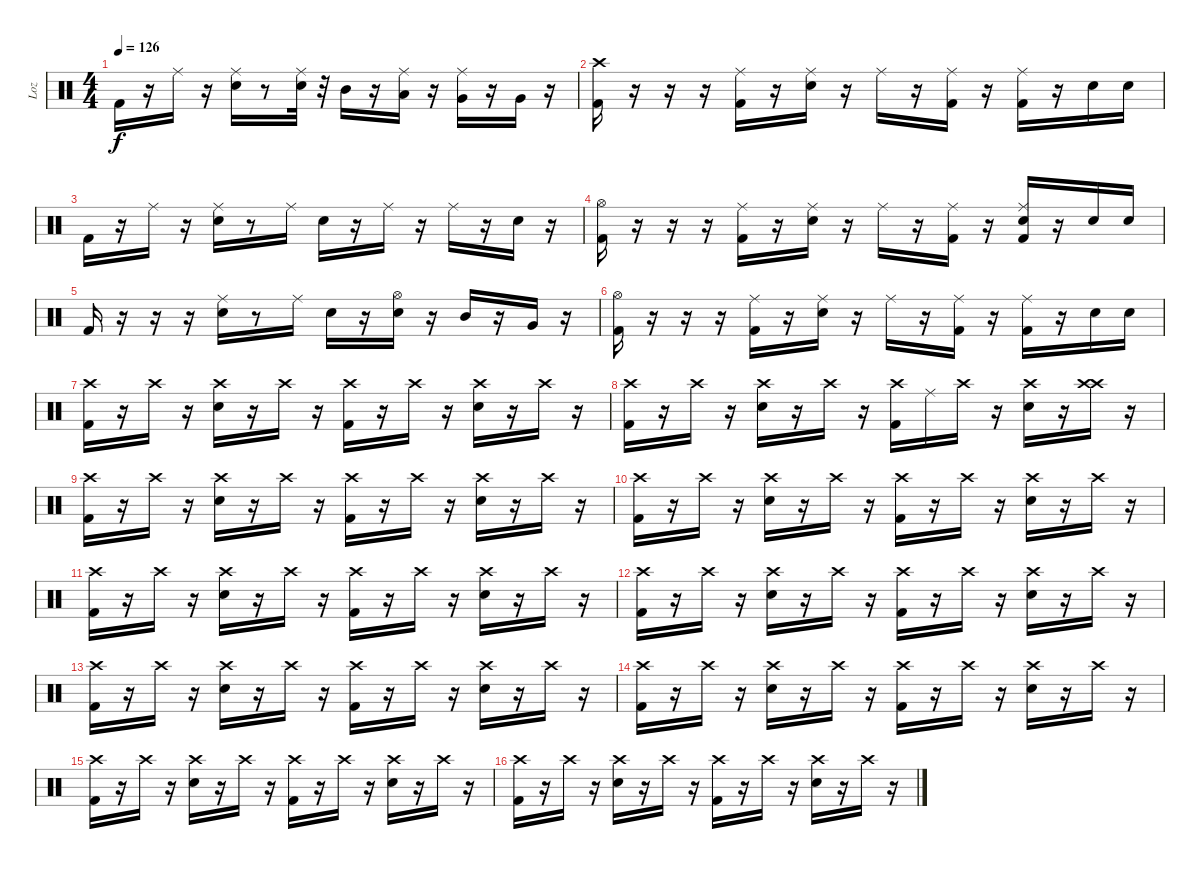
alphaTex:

\track ("Loz" "Loz") {instrument percussion}
\staff {score}
\articulation defaults
\ts (4 4)
\tempo 126
\clef neutral
\ks c "Kick (hit) 2".16{dy f}
r.16 "Ride (middle)".16 r.16 ("Ride (middle)" "Snare (hit) 2").16 r.8 ("Ride (middle)" "Snare (hit) 2").32 r.32 "Mid Tom (hit)".16 r.16 ("Ride (middle)" "Low Tom (hit)").16 r.16 ("Ride (middle)" "Very Low Tom (hit)").16 r.16 "Very Low Tom (hit)".16 r.16 |
("Crash high (hit)" "Kick (hit) 2").16 r.16 r.16 r.16 ("Ride (middle)" "Kick (hit) 2").16 r.16 ("Ride (middle)" "Snare (hit) 2").16 r.16 "Ride (middle)".16 r.16 ("Ride (middle)" "Kick (hit) 2").16 r.16 ("Ride (middle)" "Kick (hit) 2").16 r.16 "Snare (hit) 2".16 "Snare (hit) 2".16 |
"Kick (hit) 2".16 r.16 "Ride (middle)".16 r.16 ("Ride (middle)" "Snare (hit) 2").16 r.8 "Ride (middle)".16 "Snare (hit) 2".16 r.16 "Ride (middle)".16 r.16 "Ride (middle)".16 r.16 "Snare (hit) 2".16 r.16 |
("Hi-Hat (open)" "Kick (hit) 2").16 r.16 r.16 r.16 ("Ride (middle)" "Kick (hit) 2").16 r.16 ("Ride (middle)" "Snare (hit) 2").16 r.16 "Ride (middle)".16 r.16 ("Ride (middle)" "Kick (hit) 2").16 r.16 ("Ride (middle)" "Snare (hit) 2" "Kick (hit) 2").16 r.16 "Snare (hit) 2".16 "Snare (hit) 2".16 |
"Kick (hit) 2".16 r.16 r.16 r.16 ("Ride (middle)" "Snare (hit) 2").16 r.8 "Ride (middle)".16 "Snare (hit) 2".16 r.16 ("Hi-Hat (open)" "Snare (hit) 2").16 r.16 "Mid Tom (hit)".16 r.16 "Very Low Tom (hit)".16 r.16 |
("Hi-Hat (open)" "Kick (hit) 2").16 r.16 r.16 r.16 ("Ride (middle)" "Kick (hit) 2").16 r.16 ("Ride (middle)" "Snare (hit) 2").16 r.16 "Ride (middle)".16 r.16 ("Ride (middle)" "Kick (hit) 2").16 r.16 ("Ride (middle)" "Kick (hit) 2").16 r.16 "Snare (hit) 2".16 "Snare (hit) 2".16 |
("Crash high (hit)" "Kick (hit) 2").16 r.16 "Crash high (hit)".16 r.16 ("Crash high (hit)" "Snare (hit) 2").16 r.16 "Crash high (hit)".16 r.16 ("Crash high (hit)" "Kick (hit) 2").16 r.16 "Crash high (hit)".16 r.16 ("Crash high (hit)" "Snare (hit) 2").16 r.16 "Crash high (hit)".16 r.16 |
("Crash high (hit)" "Kick (hit) 2").16 r.16 "Crash high (hit)".16 r.16 ("Crash high (hit)" "Snare (hit) 2").16 r.16 "Crash high (hit)".16 r.16 ("Crash high (hit)" "Kick (hit) 2").16 "Ride (middle)".16 "Crash high (hit)".16 r.16 ("Crash high (hit)" "Snare (hit) 2").16 r.16 ("Crash high (hit)" "Crash high (hit)").16 r.16 |
("Crash high (hit)" "Kick (hit) 2").16 r.16 "Crash high (hit)".16 r.16 ("Crash high (hit)" "Snare (hit) 2").16 r.16 "Crash high (hit)".16 r.16 ("Crash high (hit)" "Kick (hit) 2").16 r.16 "Crash high (hit)".16 r.16 ("Crash high (hit)" "Snare (hit) 2").16 r.16 "Crash high (hit)".16 r.16 |
("Crash high (hit)" "Kick (hit) 2").16 r.16 "Crash high (hit)".16 r.16 ("Crash high (hit)" "Snare (hit) 2").16 r.16 "Crash high (hit)".16 r.16 ("Crash high (hit)" "Kick (hit) 2").16 r.16 "Crash high (hit)".16 r.16 ("Crash high (hit)" "Snare (hit) 2").16 r.16 "Crash high (hit)".16 r.16 |
("Crash high (hit)" "Kick (hit) 2").16 r.16 "Crash high (hit)".16 r.16 ("Crash high (hit)" "Snare (hit) 2").16 r.16 "Crash high (hit)".16 r.16 ("Crash high (hit)" "Kick (hit) 2").16 r.16 "Crash high (hit)".16 r.16 ("Crash high (hit)" "Snare (hit) 2").16 r.16 "Crash high (hit)".16 r.16 |
("Crash high (hit)" "Kick (hit) 2").16 r.16 "Crash high (hit)".16 r.16 ("Crash high (hit)" "Snare (hit) 2").16 r.16 "Crash high (hit)".16 r.16 ("Crash high (hit)" "Kick (hit) 2").16 r.16 "Crash high (hit)".16 r.16 ("Crash high (hit)" "Snare (hit) 2").16 r.16 "Crash high (hit)".16 r.16 |
("Crash high (hit)" "Kick (hit) 2").16 r.16 "Crash high (hit)".16 r.16 ("Crash high (hit)" "Snare (hit) 2").16 r.16 "Crash high (hit)".16 r.16 ("Crash high (hit)" "Kick (hit) 2").16 r.16 "Crash high (hit)".16 r.16 ("Crash high (hit)" "Snare (hit) 2").16 r.16 "Crash high (hit)".16 r.16 |
("Crash high (hit)" "Kick (hit) 2").16 r.16 "Crash high (hit)".16 r.16 ("Crash high (hit)" "Snare (hit) 2").16 r.16 "Crash high (hit)".16 r.16 ("Crash high (hit)" "Kick (hit) 2").16 r.16 "Crash high (hit)".16 r.16 ("Crash high (hit)" "Snare (hit) 2").16 r.16 "Crash high (hit)".16 r.16 |
("Crash high (hit)" "Kick (hit) 2").16 r.16 "Crash high (hit)".16 r.16 ("Crash high (hit)" "Snare (hit) 2").16 r.16 "Crash high (hit)".16 r.16 ("Crash high (hit)" "Kick (hit) 2").16 r.16 "Crash high (hit)".16 r.16 ("Crash high (hit)" "Snare (hit) 2").16 r.16 "Crash high (hit)".16 r.16 |
("Crash high (hit)" "Kick (hit) 2").16 r.16 "Crash high (hit)".16 r.16 ("Crash high (hit)" "Snare (hit) 2").16 r.16 "Crash high (hit)".16 r.16 ("Crash high (hit)" "Kick (hit) 2").16 r.16 "Crash high (hit)".16 r.16 ("Crash high (hit)" "Snare (hit) 2").16 r.16 "Crash high (hit)".16 r.16
